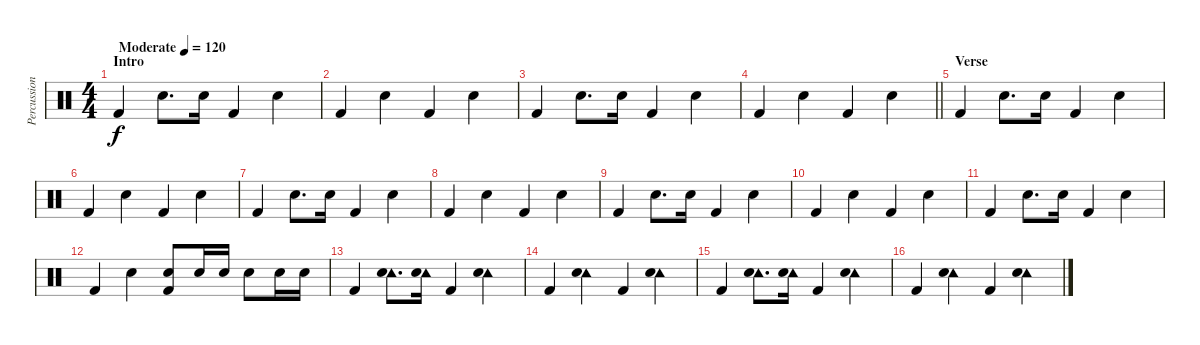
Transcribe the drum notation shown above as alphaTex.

\track ("Percussion" "Percussion") {instrument percussion}
\staff {score}
\articulation defaults
\ts (4 4)
\section ("" "Intro")
\tempo (120 "Moderate")
\clef neutral
\ks c "Kick (hit) 2".4{dy f} "Snare (hit) 2".8{d} "Snare (hit) 2".16 "Kick (hit) 2".4 "Snare (hit) 2".4
|
"Kick (hit) 2".4 "Snare (hit) 2".4 "Kick (hit) 2".4 "Snare (hit) 2".4 |
"Kick (hit) 2".4 "Snare (hit) 2".8{d} "Snare (hit) 2".16 "Kick (hit) 2".4 "Snare (hit) 2".4 |
\barLineRight lightlight "Kick (hit) 2".4 "Snare (hit) 2".4 "Kick (hit) 2".4 "Snare (hit) 2".4
|
\section ("" "Verse ")
"Kick (hit) 2".4 "Snare (hit) 2".8{d} "Snare (hit) 2".16 "Kick (hit) 2".4 "Snare (hit) 2".4 |
"Kick (hit) 2".4 "Snare (hit) 2".4 "Kick (hit) 2".4 "Snare (hit) 2".4 |
"Kick (hit) 2".4 "Snare (hit) 2".8{d} "Snare (hit) 2".16 "Kick (hit) 2".4 "Snare (hit) 2".4 |
"Kick (hit) 2".4 "Snare (hit) 2".4 "Kick (hit) 2".4 "Snare (hit) 2".4 |
"Kick (hit) 2".4 "Snare (hit) 2".8{d} "Snare (hit) 2".16 "Kick (hit) 2".4 "Snare (hit) 2".4 |
"Kick (hit) 2".4 "Snare (hit) 2".4 "Kick (hit) 2".4 "Snare (hit) 2".4 |
"Kick (hit) 2".4 "Snare (hit) 2".8{d} "Snare (hit) 2".16 "Kick (hit) 2".4 "Snare (hit) 2".4 |
"Kick (hit) 2".4 "Snare (hit) 2".4 ("Snare (hit) 2" "Kick (hit) 2").8 "Snare (hit) 2".16 "Snare (hit) 2".16 "Snare (hit) 2".8 "Snare (hit) 2".16 "Snare (hit) 2".16 |
"Kick (hit) 2".4 ("Tambourine (hit)" "Snare (hit) 2").8{d} ("Tambourine (hit)" "Snare (hit) 2").16 "Kick (hit) 2".4 ("Tambourine (hit)" "Snare (hit) 2").4 |
"Kick (hit) 2".4 ("Tambourine (hit)" "Snare (hit) 2").4 "Kick (hit) 2".4 ("Tambourine (hit)" "Snare (hit) 2").4 |
"Kick (hit) 2".4 ("Tambourine (hit)" "Snare (hit) 2").8{d} ("Tambourine (hit)" "Snare (hit) 2").16 "Kick (hit) 2".4 ("Tambourine (hit)" "Snare (hit) 2").4 |
"Kick (hit) 2".4 ("Tambourine (hit)" "Snare (hit) 2").4 "Kick (hit) 2".4 ("Tambourine (hit)" "Snare (hit) 2").4
